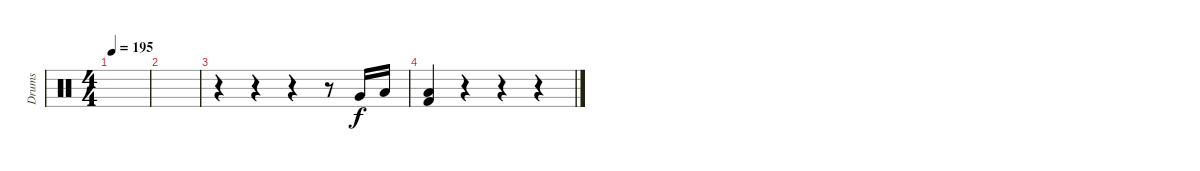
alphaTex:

\track ("Drums" "Drums") {instrument percussion}
\staff {score}
\articulation defaults
\ts (4 4)
\tempo 195
\clef neutral
\ks c
|
|
r.4 r.4 r.4 r.8 "Very Low Tom (hit)".16 "Low Floor Tom (hit)".16 |
("Low Floor Tom (hit)" "Kick (hit) 2").4 r.4 r.4 r.4
